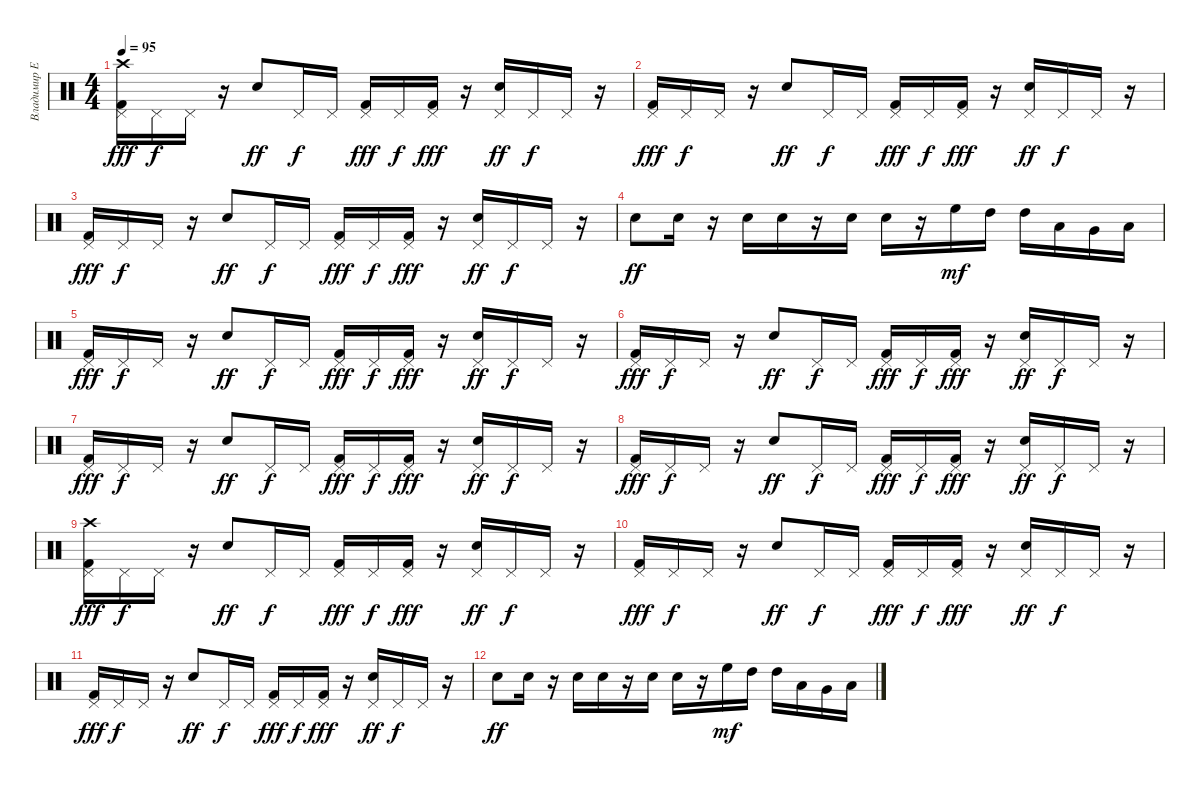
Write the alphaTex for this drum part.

\track ("Владимир Ермаков" "Владимир Е") {instrument percussion}
\staff {score}
\articulation defaults
\ts (4 4)
\tempo 95
\clef neutral
\ks c
("Crash high (hit)" "Kick (hit) 2" "Pedal Hi-Hat (hit)").16{dy fff} "Pedal Hi-Hat (hit)".16{dy f} "Pedal Hi-Hat (hit)".16 r.16 "Electric Snare (hit)".8{dy ff} "Pedal Hi-Hat (hit)".16{dy f} "Pedal Hi-Hat (hit)".16 ("Kick (hit) 2" "Pedal Hi-Hat (hit)").16{dy fff} "Pedal Hi-Hat (hit)".16{dy f} ("Kick (hit) 2" "Pedal Hi-Hat (hit)").16{dy fff} r.16 ("Electric Snare (hit)" "Pedal Hi-Hat (hit)").16{dy ff} "Pedal Hi-Hat (hit)".16{dy f} "Pedal Hi-Hat (hit)".16 r.16 |
("Kick (hit) 2" "Pedal Hi-Hat (hit)").16{dy fff} "Pedal Hi-Hat (hit)".16{dy f} "Pedal Hi-Hat (hit)".16 r.16 "Electric Snare (hit)".8{dy ff} "Pedal Hi-Hat (hit)".16{dy f} "Pedal Hi-Hat (hit)".16 ("Kick (hit) 2" "Pedal Hi-Hat (hit)").16{dy fff} "Pedal Hi-Hat (hit)".16{dy f} ("Kick (hit) 2" "Pedal Hi-Hat (hit)").16{dy fff} r.16 ("Electric Snare (hit)" "Pedal Hi-Hat (hit)").16{dy ff} "Pedal Hi-Hat (hit)".16{dy f} "Pedal Hi-Hat (hit)".16 r.16 |
("Kick (hit) 2" "Pedal Hi-Hat (hit)").16{dy fff} "Pedal Hi-Hat (hit)".16{dy f} "Pedal Hi-Hat (hit)".16 r.16 "Electric Snare (hit)".8{dy ff} "Pedal Hi-Hat (hit)".16{dy f} "Pedal Hi-Hat (hit)".16 ("Kick (hit) 2" "Pedal Hi-Hat (hit)").16{dy fff} "Pedal Hi-Hat (hit)".16{dy f} ("Kick (hit) 2" "Pedal Hi-Hat (hit)").16{dy fff} r.16 ("Electric Snare (hit)" "Pedal Hi-Hat (hit)").16{dy ff} "Pedal Hi-Hat (hit)".16{dy f} "Pedal Hi-Hat (hit)".16 r.16 |
"Electric Snare (hit)".8{dy ff} "Electric Snare (hit)".16 r.16 "Electric Snare (hit)".16 "Electric Snare (hit)".16 r.16 "Electric Snare (hit)".16 "Electric Snare (hit)".16 r.16 "High Floor Tom (hit)".16{dy mf} "High Tom (hit)".16 "High Tom (hit)".16 "Low Tom (hit)".16 "Very Low Tom (hit)".16 "Low Floor Tom (hit)".16 |
("Kick (hit) 2" "Pedal Hi-Hat (hit)").16{dy fff} "Pedal Hi-Hat (hit)".16{dy f} "Pedal Hi-Hat (hit)".16 r.16 "Electric Snare (hit)".8{dy ff} "Pedal Hi-Hat (hit)".16{dy f} "Pedal Hi-Hat (hit)".16 ("Kick (hit) 2" "Pedal Hi-Hat (hit)").16{dy fff} "Pedal Hi-Hat (hit)".16{dy f} ("Kick (hit) 2" "Pedal Hi-Hat (hit)").16{dy fff} r.16 ("Electric Snare (hit)" "Pedal Hi-Hat (hit)").16{dy ff} "Pedal Hi-Hat (hit)".16{dy f} "Pedal Hi-Hat (hit)".16 r.16 |
("Kick (hit) 2" "Pedal Hi-Hat (hit)").16{dy fff} "Pedal Hi-Hat (hit)".16{dy f} "Pedal Hi-Hat (hit)".16 r.16 "Electric Snare (hit)".8{dy ff} "Pedal Hi-Hat (hit)".16{dy f} "Pedal Hi-Hat (hit)".16 ("Kick (hit) 2" "Pedal Hi-Hat (hit)").16{dy fff} "Pedal Hi-Hat (hit)".16{dy f} ("Kick (hit) 2" "Pedal Hi-Hat (hit)").16{dy fff} r.16 ("Electric Snare (hit)" "Pedal Hi-Hat (hit)").16{dy ff} "Pedal Hi-Hat (hit)".16{dy f} "Pedal Hi-Hat (hit)".16 r.16 |
("Kick (hit) 2" "Pedal Hi-Hat (hit)").16{dy fff} "Pedal Hi-Hat (hit)".16{dy f} "Pedal Hi-Hat (hit)".16 r.16 "Electric Snare (hit)".8{dy ff} "Pedal Hi-Hat (hit)".16{dy f} "Pedal Hi-Hat (hit)".16 ("Kick (hit) 2" "Pedal Hi-Hat (hit)").16{dy fff} "Pedal Hi-Hat (hit)".16{dy f} ("Kick (hit) 2" "Pedal Hi-Hat (hit)").16{dy fff} r.16 ("Electric Snare (hit)" "Pedal Hi-Hat (hit)").16{dy ff} "Pedal Hi-Hat (hit)".16{dy f} "Pedal Hi-Hat (hit)".16 r.16 |
("Kick (hit) 2" "Pedal Hi-Hat (hit)").16{dy fff} "Pedal Hi-Hat (hit)".16{dy f} "Pedal Hi-Hat (hit)".16 r.16 "Electric Snare (hit)".8{dy ff} "Pedal Hi-Hat (hit)".16{dy f} "Pedal Hi-Hat (hit)".16 ("Kick (hit) 2" "Pedal Hi-Hat (hit)").16{dy fff} "Pedal Hi-Hat (hit)".16{dy f} ("Kick (hit) 2" "Pedal Hi-Hat (hit)").16{dy fff} r.16 ("Electric Snare (hit)" "Pedal Hi-Hat (hit)").16{dy ff} "Pedal Hi-Hat (hit)".16{dy f} "Pedal Hi-Hat (hit)".16 r.16 |
("Crash high (hit)" "Kick (hit) 2" "Pedal Hi-Hat (hit)").16{dy fff} "Pedal Hi-Hat (hit)".16{dy f} "Pedal Hi-Hat (hit)".16 r.16 "Electric Snare (hit)".8{dy ff} "Pedal Hi-Hat (hit)".16{dy f} "Pedal Hi-Hat (hit)".16 ("Kick (hit) 2" "Pedal Hi-Hat (hit)").16{dy fff} "Pedal Hi-Hat (hit)".16{dy f} ("Kick (hit) 2" "Pedal Hi-Hat (hit)").16{dy fff} r.16 ("Electric Snare (hit)" "Pedal Hi-Hat (hit)").16{dy ff} "Pedal Hi-Hat (hit)".16{dy f} "Pedal Hi-Hat (hit)".16 r.16 |
("Kick (hit) 2" "Pedal Hi-Hat (hit)").16{dy fff volume 4} "Pedal Hi-Hat (hit)".16{dy f} "Pedal Hi-Hat (hit)".16 r.16 "Electric Snare (hit)".8{dy ff} "Pedal Hi-Hat (hit)".16{dy f} "Pedal Hi-Hat (hit)".16 ("Kick (hit) 2" "Pedal Hi-Hat (hit)").16{dy fff} "Pedal Hi-Hat (hit)".16{dy f} ("Kick (hit) 2" "Pedal Hi-Hat (hit)").16{dy fff} r.16 ("Electric Snare (hit)" "Pedal Hi-Hat (hit)").16{dy ff} "Pedal Hi-Hat (hit)".16{dy f} "Pedal Hi-Hat (hit)".16 r.16 |
("Kick (hit) 2" "Pedal Hi-Hat (hit)").16{dy fff} "Pedal Hi-Hat (hit)".16{dy f} "Pedal Hi-Hat (hit)".16 r.16 "Electric Snare (hit)".8{dy ff} "Pedal Hi-Hat (hit)".16{dy f} "Pedal Hi-Hat (hit)".16 ("Kick (hit) 2" "Pedal Hi-Hat (hit)").16{dy fff} "Pedal Hi-Hat (hit)".16{dy f} ("Kick (hit) 2" "Pedal Hi-Hat (hit)").16{dy fff} r.16 ("Electric Snare (hit)" "Pedal Hi-Hat (hit)").16{dy ff} "Pedal Hi-Hat (hit)".16{dy f} "Pedal Hi-Hat (hit)".16 r.16 |
"Electric Snare (hit)".8{dy ff volume 1} "Electric Snare (hit)".16 r.16 "Electric Snare (hit)".16 "Electric Snare (hit)".16 r.16 "Electric Snare (hit)".16 "Electric Snare (hit)".16 r.16 "High Floor Tom (hit)".16{dy mf} "High Tom (hit)".16 "High Tom (hit)".16 "Low Tom (hit)".16 "Very Low Tom (hit)".16 "Low Floor Tom (hit)".16
